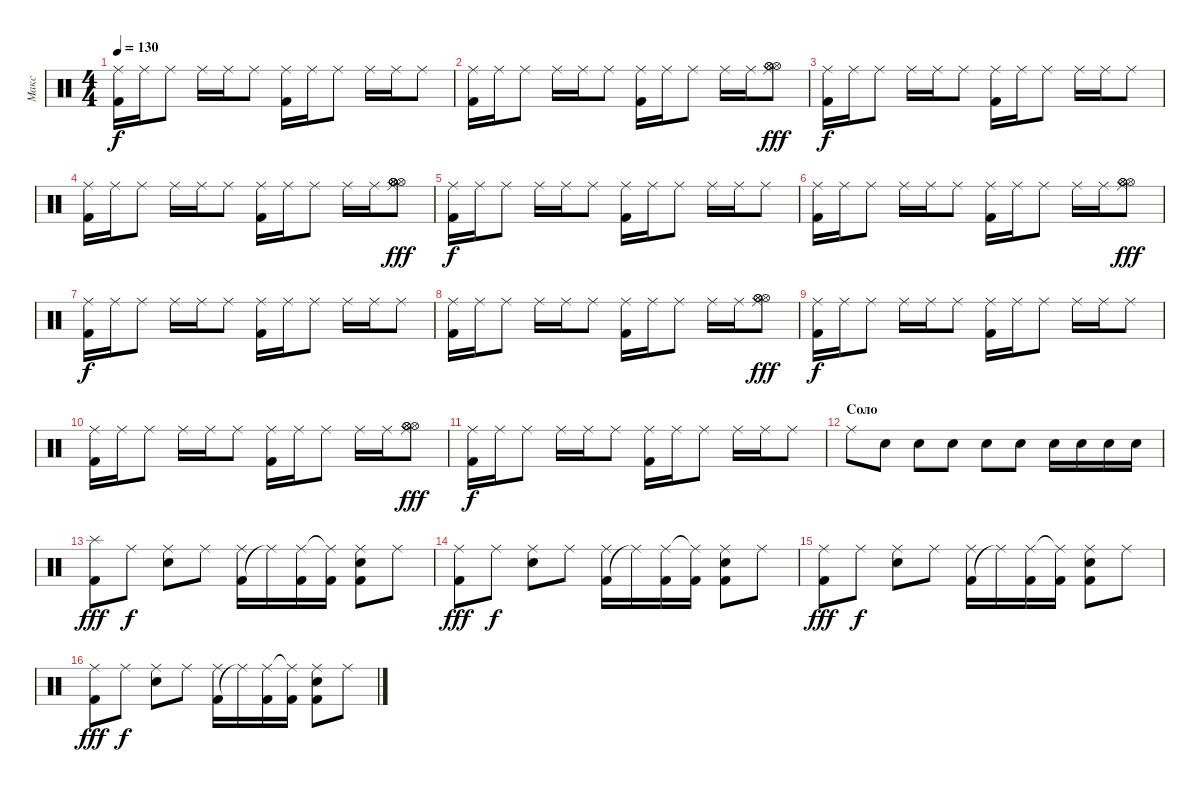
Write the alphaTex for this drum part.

\track ("Макс" "Макс") {instrument percussion}
\staff {score}
\articulation defaults
\ts (4 4)
\tempo 130
\clef neutral
\ks c
("Ride (middle)" "Kick (hit) 2").16{dy f} "Ride (middle)".16 "Ride (middle)".8 "Ride (middle)".16 "Ride (middle)".16 "Ride (middle)".8 ("Ride (middle)" "Kick (hit) 2").16 "Ride (middle)".16 "Ride (middle)".8 "Ride (middle)".16 "Ride (middle)".16 "Ride (middle)".8 |
("Ride (middle)" "Kick (hit) 2").16 "Ride (middle)".16 "Ride (middle)".8 "Ride (middle)".16 "Ride (middle)".16 "Ride (middle)".8 ("Ride (middle)" "Kick (hit) 2").16 "Ride (middle)".16 "Ride (middle)".8 "Ride (middle)".16 "Ride (middle)".16 ("Hi-Hat (open)" "Hi-Hat (open)" "Ride (middle)" "Hi-Hat (open)").8{dy fff} |
("Ride (middle)" "Kick (hit) 2").16{dy f} "Ride (middle)".16 "Ride (middle)".8 "Ride (middle)".16 "Ride (middle)".16 "Ride (middle)".8 ("Ride (middle)" "Kick (hit) 2").16 "Ride (middle)".16 "Ride (middle)".8 "Ride (middle)".16 "Ride (middle)".16 "Ride (middle)".8 |
("Ride (middle)" "Kick (hit) 2").16 "Ride (middle)".16 "Ride (middle)".8 "Ride (middle)".16 "Ride (middle)".16 "Ride (middle)".8 ("Ride (middle)" "Kick (hit) 2").16 "Ride (middle)".16 "Ride (middle)".8 "Ride (middle)".16 "Ride (middle)".16 ("Hi-Hat (open)" "Hi-Hat (open)" "Ride (middle)" "Hi-Hat (open)" "Hi-Hat (open)").8{dy fff} |
("Ride (middle)" "Kick (hit) 2").16{dy f} "Ride (middle)".16 "Ride (middle)".8 "Ride (middle)".16 "Ride (middle)".16 "Ride (middle)".8 ("Ride (middle)" "Kick (hit) 2").16 "Ride (middle)".16 "Ride (middle)".8 "Ride (middle)".16 "Ride (middle)".16 "Ride (middle)".8 |
("Ride (middle)" "Kick (hit) 2").16 "Ride (middle)".16 "Ride (middle)".8 "Ride (middle)".16 "Ride (middle)".16 "Ride (middle)".8 ("Ride (middle)" "Kick (hit) 2").16 "Ride (middle)".16 "Ride (middle)".8 "Ride (middle)".16 "Ride (middle)".16 ("Hi-Hat (open)" "Hi-Hat (open)" "Ride (middle)" "Hi-Hat (open)").8{dy fff} |
("Ride (middle)" "Kick (hit) 2").16{dy f} "Ride (middle)".16 "Ride (middle)".8 "Ride (middle)".16 "Ride (middle)".16 "Ride (middle)".8 ("Ride (middle)" "Kick (hit) 2").16 "Ride (middle)".16 "Ride (middle)".8 "Ride (middle)".16 "Ride (middle)".16 "Ride (middle)".8 |
("Ride (middle)" "Kick (hit) 2").16 "Ride (middle)".16 "Ride (middle)".8 "Ride (middle)".16 "Ride (middle)".16 "Ride (middle)".8 ("Ride (middle)" "Kick (hit) 2").16 "Ride (middle)".16 "Ride (middle)".8 "Ride (middle)".16 "Ride (middle)".16 ("Hi-Hat (open)" "Hi-Hat (open)" "Ride (middle)" "Hi-Hat (open)").8{dy fff} |
("Ride (middle)" "Kick (hit) 2").16{dy f} "Ride (middle)".16 "Ride (middle)".8 "Ride (middle)".16 "Ride (middle)".16 "Ride (middle)".8 ("Ride (middle)" "Kick (hit) 2").16 "Ride (middle)".16 "Ride (middle)".8 "Ride (middle)".16 "Ride (middle)".16 "Ride (middle)".8 |
("Ride (middle)" "Kick (hit) 2").16 "Ride (middle)".16 "Ride (middle)".8 "Ride (middle)".16 "Ride (middle)".16 "Ride (middle)".8 ("Ride (middle)" "Kick (hit) 2").16 "Ride (middle)".16 "Ride (middle)".8 "Ride (middle)".16 "Ride (middle)".16 ("Hi-Hat (open)" "Hi-Hat (open)" "Ride (middle)" "Hi-Hat (open)").8{dy fff} |
("Ride (middle)" "Kick (hit) 2").16{dy f} "Ride (middle)".16 "Ride (middle)".8 "Ride (middle)".16 "Ride (middle)".16 "Ride (middle)".8 ("Ride (middle)" "Kick (hit) 2").16 "Ride (middle)".16 "Ride (middle)".8 "Ride (middle)".16 "Ride (middle)".16 "Ride (middle)".8 |
\section ("" "Соло")
"Ride (middle)".8 "Electric Snare (hit)".8 "Electric Snare (hit)".8 "Electric Snare (hit)".8 "Electric Snare (hit)".8 "Electric Snare (hit)".8 "Electric Snare (hit)".16 "Electric Snare (hit)".16 "Electric Snare (hit)".16 "Electric Snare (hit)".16 |
("Kick (hit) 2" "Splash (hit)").8{dy fff} "Ride (middle)".8{dy f} ("Ride (middle)" "Electric Snare (hit)").8 "Ride (middle)".8 ("Kick (hit) 2" "Ride (middle)").16 "Ride (middle)"{t}.16 ("Kick (hit) 2" "Ride (middle)").16 ("Kick (hit) 2" "Ride (middle)"{t}).16 ("Kick (hit) 2" "Ride (middle)" "Electric Snare (hit)").8 "Ride (middle)".8 |
("Kick (hit) 2" "Ride (middle)").8{dy fff} "Ride (middle)".8{dy f} ("Ride (middle)" "Electric Snare (hit)").8 "Ride (middle)".8 ("Kick (hit) 2" "Ride (middle)").16 "Ride (middle)"{t}.16 ("Kick (hit) 2" "Ride (middle)").16 ("Kick (hit) 2" "Ride (middle)"{t}).16 ("Kick (hit) 2" "Ride (middle)" "Electric Snare (hit)").8 "Ride (middle)".8 |
("Kick (hit) 2" "Ride (middle)").8{dy fff} "Ride (middle)".8{dy f} ("Ride (middle)" "Electric Snare (hit)").8 "Ride (middle)".8 ("Kick (hit) 2" "Ride (middle)").16 "Ride (middle)"{t}.16 ("Kick (hit) 2" "Ride (middle)").16 ("Kick (hit) 2" "Ride (middle)"{t}).16 ("Kick (hit) 2" "Ride (middle)" "Electric Snare (hit)").8 "Ride (middle)".8 |
("Kick (hit) 2" "Ride (middle)").8{dy fff} "Ride (middle)".8{dy f} ("Ride (middle)" "Electric Snare (hit)").8 "Ride (middle)".8 ("Kick (hit) 2" "Ride (middle)").16 "Ride (middle)"{t}.16 ("Kick (hit) 2" "Ride (middle)").16 ("Kick (hit) 2" "Ride (middle)"{t}).16 ("Kick (hit) 2" "Ride (middle)" "Electric Snare (hit)").8 "Ride (middle)".8
